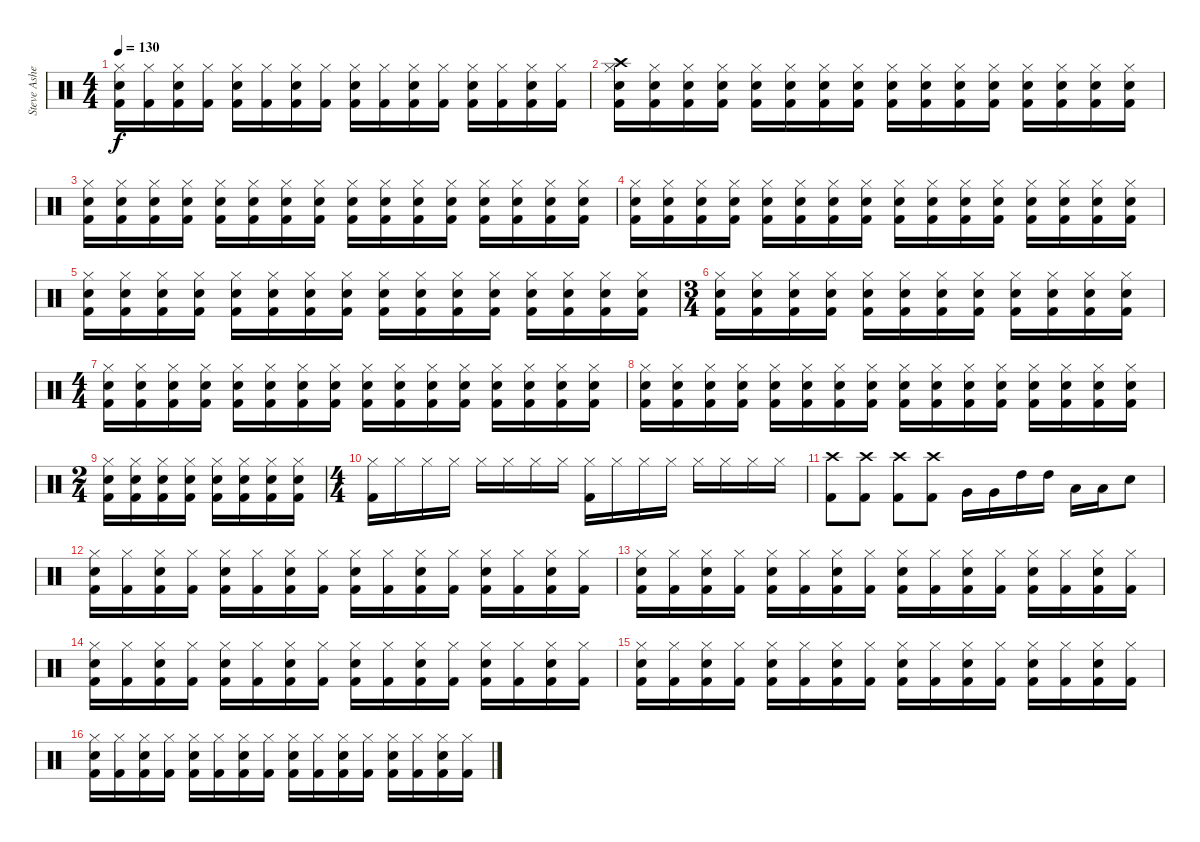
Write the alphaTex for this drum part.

\track ("Steve Asheim" "Steve Ashe") {instrument percussion}
\staff {score}
\articulation defaults
\ts (4 4)
\tempo 130
\clef neutral
\ks c
("Kick (hit) 2" "Electric Snare (hit)" "Hi-Hat (closed)").16{dy f} ("Kick (hit) 2" "Hi-Hat (closed)").16 ("Kick (hit) 2" "Electric Snare (hit)" "Hi-Hat (closed)").16 ("Kick (hit) 2" "Hi-Hat (closed)").16 ("Kick (hit) 2" "Electric Snare (hit)" "Hi-Hat (closed)").16 ("Kick (hit) 2" "Hi-Hat (closed)").16 ("Kick (hit) 2" "Electric Snare (hit)" "Hi-Hat (closed)").16 ("Kick (hit) 2" "Hi-Hat (closed)").16 ("Kick (hit) 2" "Electric Snare (hit)" "Hi-Hat (closed)").16 ("Kick (hit) 2" "Hi-Hat (closed)").16 ("Kick (hit) 2" "Electric Snare (hit)" "Hi-Hat (closed)").16 ("Kick (hit) 2" "Hi-Hat (closed)").16 ("Kick (hit) 2" "Electric Snare (hit)" "Hi-Hat (closed)").16 ("Kick (hit) 2" "Hi-Hat (closed)").16 ("Kick (hit) 2" "Electric Snare (hit)" "Hi-Hat (closed)").16 ("Kick (hit) 2" "Hi-Hat (closed)").16 |
("Kick (hit) 2" "Electric Snare (hit)" "Hi-Hat (closed)" "Crash high (hit)").16 ("Kick (hit) 2" "Electric Snare (hit)" "Hi-Hat (closed)").16 ("Kick (hit) 2" "Electric Snare (hit)" "Hi-Hat (closed)").16 ("Kick (hit) 2" "Electric Snare (hit)" "Hi-Hat (closed)").16 ("Kick (hit) 2" "Electric Snare (hit)" "Hi-Hat (closed)").16 ("Kick (hit) 2" "Electric Snare (hit)" "Hi-Hat (closed)").16 ("Kick (hit) 2" "Electric Snare (hit)" "Hi-Hat (closed)").16 ("Kick (hit) 2" "Electric Snare (hit)" "Hi-Hat (closed)").16 ("Kick (hit) 2" "Electric Snare (hit)" "Hi-Hat (closed)").16 ("Kick (hit) 2" "Electric Snare (hit)" "Hi-Hat (closed)").16 ("Kick (hit) 2" "Electric Snare (hit)" "Hi-Hat (closed)").16 ("Kick (hit) 2" "Electric Snare (hit)" "Hi-Hat (closed)").16 ("Kick (hit) 2" "Electric Snare (hit)" "Hi-Hat (closed)").16 ("Kick (hit) 2" "Electric Snare (hit)" "Hi-Hat (closed)").16 ("Kick (hit) 2" "Electric Snare (hit)" "Hi-Hat (closed)").16 ("Kick (hit) 2" "Electric Snare (hit)" "Hi-Hat (closed)").16 |
("Kick (hit) 2" "Electric Snare (hit)" "Hi-Hat (closed)").16 ("Kick (hit) 2" "Electric Snare (hit)" "Hi-Hat (closed)").16 ("Kick (hit) 2" "Electric Snare (hit)" "Hi-Hat (closed)").16 ("Kick (hit) 2" "Electric Snare (hit)" "Hi-Hat (closed)").16 ("Kick (hit) 2" "Electric Snare (hit)" "Hi-Hat (closed)").16 ("Kick (hit) 2" "Electric Snare (hit)" "Hi-Hat (closed)").16 ("Kick (hit) 2" "Electric Snare (hit)" "Hi-Hat (closed)").16 ("Kick (hit) 2" "Electric Snare (hit)" "Hi-Hat (closed)").16 ("Kick (hit) 2" "Electric Snare (hit)" "Hi-Hat (closed)").16 ("Kick (hit) 2" "Electric Snare (hit)" "Hi-Hat (closed)").16 ("Kick (hit) 2" "Electric Snare (hit)" "Hi-Hat (closed)").16 ("Kick (hit) 2" "Electric Snare (hit)" "Hi-Hat (closed)").16 ("Kick (hit) 2" "Electric Snare (hit)" "Hi-Hat (closed)").16 ("Kick (hit) 2" "Electric Snare (hit)" "Hi-Hat (closed)").16 ("Kick (hit) 2" "Electric Snare (hit)" "Hi-Hat (closed)").16 ("Kick (hit) 2" "Electric Snare (hit)" "Hi-Hat (closed)").16 |
("Kick (hit) 2" "Electric Snare (hit)" "Hi-Hat (closed)").16 ("Kick (hit) 2" "Electric Snare (hit)" "Hi-Hat (closed)").16 ("Kick (hit) 2" "Electric Snare (hit)" "Hi-Hat (closed)").16 ("Kick (hit) 2" "Electric Snare (hit)" "Hi-Hat (closed)").16 ("Kick (hit) 2" "Electric Snare (hit)" "Hi-Hat (closed)").16 ("Kick (hit) 2" "Electric Snare (hit)" "Hi-Hat (closed)").16 ("Kick (hit) 2" "Electric Snare (hit)" "Hi-Hat (closed)").16 ("Kick (hit) 2" "Electric Snare (hit)" "Hi-Hat (closed)").16 ("Kick (hit) 2" "Electric Snare (hit)" "Hi-Hat (closed)").16 ("Kick (hit) 2" "Electric Snare (hit)" "Hi-Hat (closed)").16 ("Kick (hit) 2" "Electric Snare (hit)" "Hi-Hat (closed)").16 ("Kick (hit) 2" "Electric Snare (hit)" "Hi-Hat (closed)").16 ("Kick (hit) 2" "Electric Snare (hit)" "Hi-Hat (closed)").16 ("Kick (hit) 2" "Electric Snare (hit)" "Hi-Hat (closed)").16 ("Kick (hit) 2" "Electric Snare (hit)" "Hi-Hat (closed)").16 ("Kick (hit) 2" "Electric Snare (hit)" "Hi-Hat (closed)").16 |
("Kick (hit) 2" "Electric Snare (hit)" "Hi-Hat (closed)").16 ("Kick (hit) 2" "Electric Snare (hit)" "Hi-Hat (closed)").16 ("Kick (hit) 2" "Electric Snare (hit)" "Hi-Hat (closed)").16 ("Kick (hit) 2" "Electric Snare (hit)" "Hi-Hat (closed)").16 ("Kick (hit) 2" "Electric Snare (hit)" "Hi-Hat (closed)").16 ("Kick (hit) 2" "Electric Snare (hit)" "Hi-Hat (closed)").16 ("Kick (hit) 2" "Electric Snare (hit)" "Hi-Hat (closed)").16 ("Kick (hit) 2" "Electric Snare (hit)" "Hi-Hat (closed)").16 ("Kick (hit) 2" "Electric Snare (hit)" "Hi-Hat (closed)").16 ("Kick (hit) 2" "Electric Snare (hit)" "Hi-Hat (closed)").16 ("Kick (hit) 2" "Electric Snare (hit)" "Hi-Hat (closed)").16 ("Kick (hit) 2" "Electric Snare (hit)" "Hi-Hat (closed)").16 ("Kick (hit) 2" "Electric Snare (hit)" "Hi-Hat (closed)").16 ("Kick (hit) 2" "Electric Snare (hit)" "Hi-Hat (closed)").16 ("Kick (hit) 2" "Electric Snare (hit)" "Hi-Hat (closed)").16 ("Kick (hit) 2" "Electric Snare (hit)" "Hi-Hat (closed)").16 |
\ts (3 4)
("Kick (hit) 2" "Electric Snare (hit)" "Hi-Hat (closed)").16 ("Kick (hit) 2" "Electric Snare (hit)" "Hi-Hat (closed)").16 ("Kick (hit) 2" "Electric Snare (hit)" "Hi-Hat (closed)").16 ("Kick (hit) 2" "Electric Snare (hit)" "Hi-Hat (closed)").16 ("Kick (hit) 2" "Electric Snare (hit)" "Hi-Hat (closed)").16 ("Kick (hit) 2" "Electric Snare (hit)" "Hi-Hat (closed)").16 ("Kick (hit) 2" "Electric Snare (hit)" "Hi-Hat (closed)").16 ("Kick (hit) 2" "Electric Snare (hit)" "Hi-Hat (closed)").16 ("Kick (hit) 2" "Electric Snare (hit)" "Hi-Hat (closed)").16 ("Kick (hit) 2" "Electric Snare (hit)" "Hi-Hat (closed)").16 ("Kick (hit) 2" "Electric Snare (hit)" "Hi-Hat (closed)").16 ("Kick (hit) 2" "Electric Snare (hit)" "Hi-Hat (closed)").16 |
\ts (4 4)
("Kick (hit) 2" "Electric Snare (hit)" "Hi-Hat (closed)").16 ("Kick (hit) 2" "Electric Snare (hit)" "Hi-Hat (closed)").16 ("Kick (hit) 2" "Electric Snare (hit)" "Hi-Hat (closed)").16 ("Kick (hit) 2" "Electric Snare (hit)" "Hi-Hat (closed)").16 ("Kick (hit) 2" "Electric Snare (hit)" "Hi-Hat (closed)").16 ("Kick (hit) 2" "Electric Snare (hit)" "Hi-Hat (closed)").16 ("Kick (hit) 2" "Electric Snare (hit)" "Hi-Hat (closed)").16 ("Kick (hit) 2" "Electric Snare (hit)" "Hi-Hat (closed)").16 ("Kick (hit) 2" "Electric Snare (hit)" "Hi-Hat (closed)").16 ("Kick (hit) 2" "Electric Snare (hit)" "Hi-Hat (closed)").16 ("Kick (hit) 2" "Electric Snare (hit)" "Hi-Hat (closed)").16 ("Kick (hit) 2" "Electric Snare (hit)" "Hi-Hat (closed)").16 ("Kick (hit) 2" "Electric Snare (hit)" "Hi-Hat (closed)").16 ("Kick (hit) 2" "Electric Snare (hit)" "Hi-Hat (closed)").16 ("Kick (hit) 2" "Electric Snare (hit)" "Hi-Hat (closed)").16 ("Kick (hit) 2" "Electric Snare (hit)" "Hi-Hat (closed)").16 |
("Kick (hit) 2" "Electric Snare (hit)" "Hi-Hat (closed)").16 ("Kick (hit) 2" "Electric Snare (hit)" "Hi-Hat (closed)").16 ("Kick (hit) 2" "Electric Snare (hit)" "Hi-Hat (closed)").16 ("Kick (hit) 2" "Electric Snare (hit)" "Hi-Hat (closed)").16 ("Kick (hit) 2" "Electric Snare (hit)" "Hi-Hat (closed)").16 ("Kick (hit) 2" "Electric Snare (hit)" "Hi-Hat (closed)").16 ("Kick (hit) 2" "Electric Snare (hit)" "Hi-Hat (closed)").16 ("Kick (hit) 2" "Electric Snare (hit)" "Hi-Hat (closed)").16 ("Kick (hit) 2" "Electric Snare (hit)" "Hi-Hat (closed)").16 ("Kick (hit) 2" "Electric Snare (hit)" "Hi-Hat (closed)").16 ("Kick (hit) 2" "Electric Snare (hit)" "Hi-Hat (closed)").16 ("Kick (hit) 2" "Electric Snare (hit)" "Hi-Hat (closed)").16 ("Kick (hit) 2" "Electric Snare (hit)" "Hi-Hat (closed)").16 ("Kick (hit) 2" "Electric Snare (hit)" "Hi-Hat (closed)").16 ("Kick (hit) 2" "Electric Snare (hit)" "Hi-Hat (closed)").16 ("Kick (hit) 2" "Electric Snare (hit)" "Hi-Hat (closed)").16 |
\ts (2 4)
("Kick (hit) 2" "Electric Snare (hit)" "Hi-Hat (closed)").16 ("Kick (hit) 2" "Electric Snare (hit)" "Hi-Hat (closed)").16 ("Kick (hit) 2" "Electric Snare (hit)" "Hi-Hat (closed)").16 ("Kick (hit) 2" "Electric Snare (hit)" "Hi-Hat (closed)").16 ("Kick (hit) 2" "Electric Snare (hit)" "Hi-Hat (closed)").16 ("Kick (hit) 2" "Electric Snare (hit)" "Hi-Hat (closed)").16 ("Kick (hit) 2" "Electric Snare (hit)" "Hi-Hat (closed)").16 ("Kick (hit) 2" "Electric Snare (hit)" "Hi-Hat (closed)").16 |
\ts (4 4)
("Kick (hit) 2" "Hi-Hat (closed)").16 "Hi-Hat (closed)".16 "Hi-Hat (closed)".16 "Hi-Hat (closed)".16 "Hi-Hat (closed)".16 "Hi-Hat (closed)".16 "Hi-Hat (closed)".16 "Hi-Hat (closed)".16 ("Kick (hit) 2" "Hi-Hat (closed)").16 "Hi-Hat (closed)".16 "Hi-Hat (closed)".16 "Hi-Hat (closed)".16 "Hi-Hat (closed)".16 "Hi-Hat (closed)".16 "Hi-Hat (closed)".16 "Hi-Hat (closed)".16 |
("Kick (hit) 2" "Crash high (hit)").8 ("Kick (hit) 2" "Crash high (hit)").8 ("Kick (hit) 2" "Crash high (hit)").8 ("Kick (hit) 2" "Crash high (hit)").8 "Very Low Tom (hit)".16 "Very Low Tom (hit)".16 "High Tom (hit)".16 "High Tom (hit)".16 "Low Floor Tom (hit)".16 "Low Floor Tom (hit)".16 "Electric Snare (hit)".8 |
("Kick (hit) 2" "Electric Snare (hit)" "Hi-Hat (closed)").16 ("Kick (hit) 2" "Hi-Hat (closed)").16 ("Kick (hit) 2" "Electric Snare (hit)" "Hi-Hat (closed)").16 ("Kick (hit) 2" "Hi-Hat (closed)").16 ("Kick (hit) 2" "Electric Snare (hit)" "Hi-Hat (closed)").16 ("Kick (hit) 2" "Hi-Hat (closed)").16 ("Kick (hit) 2" "Electric Snare (hit)" "Hi-Hat (closed)").16 ("Kick (hit) 2" "Hi-Hat (closed)").16 ("Kick (hit) 2" "Electric Snare (hit)" "Hi-Hat (closed)").16 ("Kick (hit) 2" "Hi-Hat (closed)").16 ("Kick (hit) 2" "Electric Snare (hit)" "Hi-Hat (closed)").16 ("Kick (hit) 2" "Hi-Hat (closed)").16 ("Kick (hit) 2" "Electric Snare (hit)" "Hi-Hat (closed)").16 ("Kick (hit) 2" "Hi-Hat (closed)").16 ("Kick (hit) 2" "Electric Snare (hit)" "Hi-Hat (closed)").16 ("Kick (hit) 2" "Hi-Hat (closed)").16 |
("Kick (hit) 2" "Electric Snare (hit)" "Hi-Hat (closed)").16 ("Kick (hit) 2" "Hi-Hat (closed)").16 ("Kick (hit) 2" "Electric Snare (hit)" "Hi-Hat (closed)").16 ("Kick (hit) 2" "Hi-Hat (closed)").16 ("Kick (hit) 2" "Electric Snare (hit)" "Hi-Hat (closed)").16 ("Kick (hit) 2" "Hi-Hat (closed)").16 ("Kick (hit) 2" "Electric Snare (hit)" "Hi-Hat (closed)").16 ("Kick (hit) 2" "Hi-Hat (closed)").16 ("Kick (hit) 2" "Electric Snare (hit)" "Hi-Hat (closed)").16 ("Kick (hit) 2" "Hi-Hat (closed)").16 ("Kick (hit) 2" "Electric Snare (hit)" "Hi-Hat (closed)").16 ("Kick (hit) 2" "Hi-Hat (closed)").16 ("Kick (hit) 2" "Electric Snare (hit)" "Hi-Hat (closed)").16 ("Kick (hit) 2" "Hi-Hat (closed)").16 ("Kick (hit) 2" "Electric Snare (hit)" "Hi-Hat (closed)").16 ("Kick (hit) 2" "Hi-Hat (closed)").16 |
("Kick (hit) 2" "Electric Snare (hit)" "Hi-Hat (closed)").16 ("Kick (hit) 2" "Hi-Hat (closed)").16 ("Kick (hit) 2" "Electric Snare (hit)" "Hi-Hat (closed)").16 ("Kick (hit) 2" "Hi-Hat (closed)").16 ("Kick (hit) 2" "Electric Snare (hit)" "Hi-Hat (closed)").16 ("Kick (hit) 2" "Hi-Hat (closed)").16 ("Kick (hit) 2" "Electric Snare (hit)" "Hi-Hat (closed)").16 ("Kick (hit) 2" "Hi-Hat (closed)").16 ("Kick (hit) 2" "Electric Snare (hit)" "Hi-Hat (closed)").16 ("Kick (hit) 2" "Hi-Hat (closed)").16 ("Kick (hit) 2" "Electric Snare (hit)" "Hi-Hat (closed)").16 ("Kick (hit) 2" "Hi-Hat (closed)").16 ("Kick (hit) 2" "Electric Snare (hit)" "Hi-Hat (closed)").16 ("Kick (hit) 2" "Hi-Hat (closed)").16 ("Kick (hit) 2" "Electric Snare (hit)" "Hi-Hat (closed)").16 ("Kick (hit) 2" "Hi-Hat (closed)").16 |
("Kick (hit) 2" "Electric Snare (hit)" "Hi-Hat (closed)").16 ("Kick (hit) 2" "Hi-Hat (closed)").16 ("Kick (hit) 2" "Electric Snare (hit)" "Hi-Hat (closed)").16 ("Kick (hit) 2" "Hi-Hat (closed)").16 ("Kick (hit) 2" "Electric Snare (hit)" "Hi-Hat (closed)").16 ("Kick (hit) 2" "Hi-Hat (closed)").16 ("Kick (hit) 2" "Electric Snare (hit)" "Hi-Hat (closed)").16 ("Kick (hit) 2" "Hi-Hat (closed)").16 ("Kick (hit) 2" "Electric Snare (hit)" "Hi-Hat (closed)").16 ("Kick (hit) 2" "Hi-Hat (closed)").16 ("Kick (hit) 2" "Electric Snare (hit)" "Hi-Hat (closed)").16 ("Kick (hit) 2" "Hi-Hat (closed)").16 ("Kick (hit) 2" "Electric Snare (hit)" "Hi-Hat (closed)").16 ("Kick (hit) 2" "Hi-Hat (closed)").16 ("Kick (hit) 2" "Electric Snare (hit)" "Hi-Hat (closed)").16 ("Kick (hit) 2" "Hi-Hat (closed)").16 |
("Kick (hit) 2" "Electric Snare (hit)" "Hi-Hat (closed)").16 ("Kick (hit) 2" "Hi-Hat (closed)").16 ("Kick (hit) 2" "Electric Snare (hit)" "Hi-Hat (closed)").16 ("Kick (hit) 2" "Hi-Hat (closed)").16 ("Kick (hit) 2" "Electric Snare (hit)" "Hi-Hat (closed)").16 ("Kick (hit) 2" "Hi-Hat (closed)").16 ("Kick (hit) 2" "Electric Snare (hit)" "Hi-Hat (closed)").16 ("Kick (hit) 2" "Hi-Hat (closed)").16 ("Kick (hit) 2" "Electric Snare (hit)" "Hi-Hat (closed)").16 ("Kick (hit) 2" "Hi-Hat (closed)").16 ("Kick (hit) 2" "Electric Snare (hit)" "Hi-Hat (closed)").16 ("Kick (hit) 2" "Hi-Hat (closed)").16 ("Kick (hit) 2" "Electric Snare (hit)" "Hi-Hat (closed)").16 ("Kick (hit) 2" "Hi-Hat (closed)").16 ("Kick (hit) 2" "Electric Snare (hit)" "Hi-Hat (closed)").16 ("Kick (hit) 2" "Hi-Hat (closed)").16
